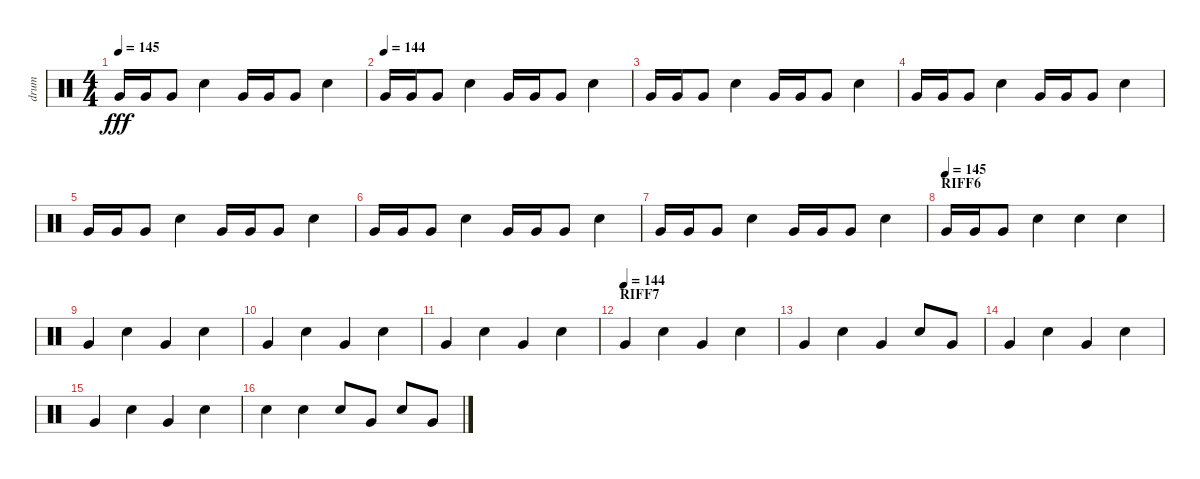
\track ("drum" "drum") {instrument percussion}
\staff {score}
\articulation defaults
\ts (4 4)
\tempo 145
\clef neutral
\ks c "Very Low Tom (hit)".16{dy fff} "Very Low Tom (hit)".16 "Very Low Tom (hit)".8 "Electric Snare (hit)".4 "Very Low Tom (hit)".16 "Very Low Tom (hit)".16 "Very Low Tom (hit)".8 "Electric Snare (hit)".4
|
\tempo (144)
"Very Low Tom (hit)".16 "Very Low Tom (hit)".16 "Very Low Tom (hit)".8 "Electric Snare (hit)".4 "Very Low Tom (hit)".16 "Very Low Tom (hit)".16 "Very Low Tom (hit)".8 "Electric Snare (hit)".4 |
"Very Low Tom (hit)".16 "Very Low Tom (hit)".16 "Very Low Tom (hit)".8 "Electric Snare (hit)".4 "Very Low Tom (hit)".16 "Very Low Tom (hit)".16 "Very Low Tom (hit)".8 "Electric Snare (hit)".4 |
"Very Low Tom (hit)".16 "Very Low Tom (hit)".16 "Very Low Tom (hit)".8 "Electric Snare (hit)".4 "Very Low Tom (hit)".16 "Very Low Tom (hit)".16 "Very Low Tom (hit)".8 "Electric Snare (hit)".4 |
"Very Low Tom (hit)".16 "Very Low Tom (hit)".16 "Very Low Tom (hit)".8 "Electric Snare (hit)".4 "Very Low Tom (hit)".16 "Very Low Tom (hit)".16 "Very Low Tom (hit)".8 "Electric Snare (hit)".4 |
"Very Low Tom (hit)".16 "Very Low Tom (hit)".16 "Very Low Tom (hit)".8 "Electric Snare (hit)".4 "Very Low Tom (hit)".16 "Very Low Tom (hit)".16 "Very Low Tom (hit)".8 "Electric Snare (hit)".4 |
"Very Low Tom (hit)".16 "Very Low Tom (hit)".16 "Very Low Tom (hit)".8 "Electric Snare (hit)".4 "Very Low Tom (hit)".16 "Very Low Tom (hit)".16 "Very Low Tom (hit)".8 "Electric Snare (hit)".4 |
\section ("" "RIFF6")
\tempo (145)
"Very Low Tom (hit)".16 "Very Low Tom (hit)".16 "Very Low Tom (hit)".8 "Electric Snare (hit)".4 "Electric Snare (hit)".4 "Electric Snare (hit)".4 |
"Very Low Tom (hit)".4 "Electric Snare (hit)".4 "Very Low Tom (hit)".4 "Electric Snare (hit)".4 |
"Very Low Tom (hit)".4 "Electric Snare (hit)".4 "Very Low Tom (hit)".4 "Electric Snare (hit)".4 |
"Very Low Tom (hit)".4 "Electric Snare (hit)".4 "Very Low Tom (hit)".4 "Electric Snare (hit)".4 |
\section ("" "RIFF7")
\tempo (144)
"Very Low Tom (hit)".4 "Electric Snare (hit)".4 "Very Low Tom (hit)".4 "Electric Snare (hit)".4 |
"Very Low Tom (hit)".4 "Electric Snare (hit)".4 "Very Low Tom (hit)".4 "Electric Snare (hit)".8 "Very Low Tom (hit)".8 |
"Very Low Tom (hit)".4 "Electric Snare (hit)".4 "Very Low Tom (hit)".4 "Electric Snare (hit)".4 |
"Very Low Tom (hit)".4 "Electric Snare (hit)".4 "Very Low Tom (hit)".4 "Electric Snare (hit)".4 |
"Electric Snare (hit)".4 "Electric Snare (hit)".4 "Electric Snare (hit)".8 "Very Low Tom (hit)".8 "Electric Snare (hit)".8 "Very Low Tom (hit)".8
